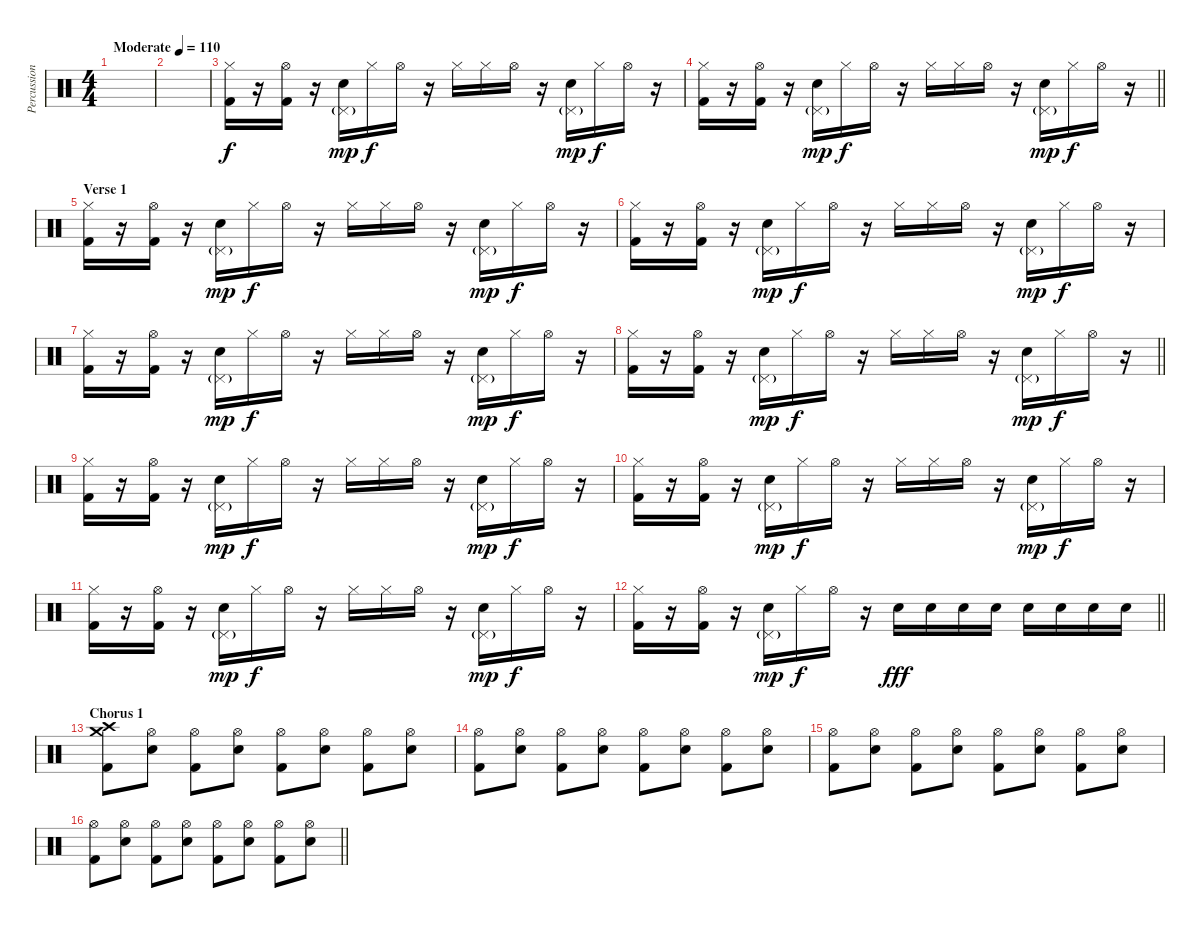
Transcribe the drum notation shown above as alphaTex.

\track ("Percussion" "Percussion") {instrument percussion}
\staff {score}
\articulation defaults
\ts (4 4)
\tempo (110 "Moderate")
\clef neutral
\ks c
|
|
("Kick (hit) 2" "Hi-Hat (closed)").16 r.16 ("Kick (hit) 2" "Hi-Hat (open)").16 r.16 ("Electric Snare (hit)" "Pedal Hi-Hat (hit)"{g}).16{dy mp} "Hi-Hat (closed)".16{dy f} "Hi-Hat (open)".16 r.16 "Hi-Hat (closed)".16 "Hi-Hat (closed)".16 "Hi-Hat (open)".16 r.16 ("Electric Snare (hit)" "Pedal Hi-Hat (hit)"{g}).16{dy mp} "Hi-Hat (closed)".16{dy f} "Hi-Hat (open)".16 r.16 |
\barLineRight lightlight
("Kick (hit) 2" "Hi-Hat (closed)").16 r.16 ("Kick (hit) 2" "Hi-Hat (open)").16 r.16 ("Electric Snare (hit)" "Pedal Hi-Hat (hit)"{g}).16{dy mp} "Hi-Hat (closed)".16{dy f} "Hi-Hat (open)".16 r.16 "Hi-Hat (closed)".16 "Hi-Hat (closed)".16 "Hi-Hat (open)".16 r.16 ("Electric Snare (hit)" "Pedal Hi-Hat (hit)"{g}).16{dy mp} "Hi-Hat (closed)".16{dy f} "Hi-Hat (open)".16 r.16 |
\section ("" "Verse 1")
("Kick (hit) 2" "Hi-Hat (closed)").16 r.16 ("Kick (hit) 2" "Hi-Hat (open)").16 r.16 ("Electric Snare (hit)" "Pedal Hi-Hat (hit)"{g}).16{dy mp} "Hi-Hat (closed)".16{dy f} "Hi-Hat (open)".16 r.16 "Hi-Hat (closed)".16 "Hi-Hat (closed)".16 "Hi-Hat (open)".16 r.16 ("Electric Snare (hit)" "Pedal Hi-Hat (hit)"{g}).16{dy mp} "Hi-Hat (closed)".16{dy f} "Hi-Hat (open)".16 r.16 |
("Kick (hit) 2" "Hi-Hat (closed)").16 r.16 ("Kick (hit) 2" "Hi-Hat (open)").16 r.16 ("Electric Snare (hit)" "Pedal Hi-Hat (hit)"{g}).16{dy mp} "Hi-Hat (closed)".16{dy f} "Hi-Hat (open)".16 r.16 "Hi-Hat (closed)".16 "Hi-Hat (closed)".16 "Hi-Hat (open)".16 r.16 ("Electric Snare (hit)" "Pedal Hi-Hat (hit)"{g}).16{dy mp} "Hi-Hat (closed)".16{dy f} "Hi-Hat (open)".16 r.16 |
("Kick (hit) 2" "Hi-Hat (closed)").16 r.16 ("Kick (hit) 2" "Hi-Hat (open)").16 r.16 ("Electric Snare (hit)" "Pedal Hi-Hat (hit)"{g}).16{dy mp} "Hi-Hat (closed)".16{dy f} "Hi-Hat (open)".16 r.16 "Hi-Hat (closed)".16 "Hi-Hat (closed)".16 "Hi-Hat (open)".16 r.16 ("Electric Snare (hit)" "Pedal Hi-Hat (hit)"{g}).16{dy mp} "Hi-Hat (closed)".16{dy f} "Hi-Hat (open)".16 r.16 |
\barLineRight lightlight
("Kick (hit) 2" "Hi-Hat (closed)").16 r.16 ("Kick (hit) 2" "Hi-Hat (open)").16 r.16 ("Electric Snare (hit)" "Pedal Hi-Hat (hit)"{g}).16{dy mp} "Hi-Hat (closed)".16{dy f} "Hi-Hat (open)".16 r.16 "Hi-Hat (closed)".16 "Hi-Hat (closed)".16 "Hi-Hat (open)".16 r.16 ("Electric Snare (hit)" "Pedal Hi-Hat (hit)"{g}).16{dy mp} "Hi-Hat (closed)".16{dy f} "Hi-Hat (open)".16 r.16 |
("Kick (hit) 2" "Hi-Hat (closed)").16 r.16 ("Kick (hit) 2" "Hi-Hat (open)").16 r.16 ("Electric Snare (hit)" "Pedal Hi-Hat (hit)"{g}).16{dy mp} "Hi-Hat (closed)".16{dy f} "Hi-Hat (open)".16 r.16 "Hi-Hat (closed)".16 "Hi-Hat (closed)".16 "Hi-Hat (open)".16 r.16 ("Electric Snare (hit)" "Pedal Hi-Hat (hit)"{g}).16{dy mp} "Hi-Hat (closed)".16{dy f} "Hi-Hat (open)".16 r.16 |
("Kick (hit) 2" "Hi-Hat (closed)").16 r.16 ("Kick (hit) 2" "Hi-Hat (open)").16 r.16 ("Electric Snare (hit)" "Pedal Hi-Hat (hit)"{g}).16{dy mp} "Hi-Hat (closed)".16{dy f} "Hi-Hat (open)".16 r.16 "Hi-Hat (closed)".16 "Hi-Hat (closed)".16 "Hi-Hat (open)".16 r.16 ("Electric Snare (hit)" "Pedal Hi-Hat (hit)"{g}).16{dy mp} "Hi-Hat (closed)".16{dy f} "Hi-Hat (open)".16 r.16 |
("Kick (hit) 2" "Hi-Hat (closed)").16 r.16 ("Kick (hit) 2" "Hi-Hat (open)").16 r.16 ("Electric Snare (hit)" "Pedal Hi-Hat (hit)"{g}).16{dy mp} "Hi-Hat (closed)".16{dy f} "Hi-Hat (open)".16 r.16 "Hi-Hat (closed)".16 "Hi-Hat (closed)".16 "Hi-Hat (open)".16 r.16 ("Electric Snare (hit)" "Pedal Hi-Hat (hit)"{g}).16{dy mp} "Hi-Hat (closed)".16{dy f} "Hi-Hat (open)".16 r.16 |
\barLineRight lightlight
("Kick (hit) 2" "Hi-Hat (closed)").16 r.16 ("Kick (hit) 2" "Hi-Hat (open)").16 r.16 ("Electric Snare (hit)" "Pedal Hi-Hat (hit)"{g}).16{dy mp} "Hi-Hat (closed)".16{dy f} "Hi-Hat (open)".16 r.16 "Electric Snare (hit)".16{dy fff} "Electric Snare (hit)".16 "Electric Snare (hit)".16 "Electric Snare (hit)".16 "Electric Snare (hit)".16 "Electric Snare (hit)".16 "Electric Snare (hit)".16 "Electric Snare (hit)".16 |
\section ("" "Chorus 1")
("Kick (hit) 2" "Crash medium (hit)" "Crash high (hit)").8 ("Electric Snare (hit)" "Hi-Hat (open)").8 ("Kick (hit) 2" "Hi-Hat (open)").8 ("Electric Snare (hit)" "Hi-Hat (open)").8 ("Kick (hit) 2" "Hi-Hat (open)").8 ("Electric Snare (hit)" "Hi-Hat (open)").8 ("Kick (hit) 2" "Hi-Hat (open)").8 ("Electric Snare (hit)" "Hi-Hat (open)").8 |
("Kick (hit) 2" "Hi-Hat (open)").8 ("Electric Snare (hit)" "Hi-Hat (open)").8 ("Kick (hit) 2" "Hi-Hat (open)").8 ("Electric Snare (hit)" "Hi-Hat (open)").8 ("Kick (hit) 2" "Hi-Hat (open)").8 ("Electric Snare (hit)" "Hi-Hat (open)").8 ("Kick (hit) 2" "Hi-Hat (open)").8 ("Electric Snare (hit)" "Hi-Hat (open)").8 |
("Kick (hit) 2" "Hi-Hat (open)").8 ("Electric Snare (hit)" "Hi-Hat (open)").8 ("Kick (hit) 2" "Hi-Hat (open)").8 ("Electric Snare (hit)" "Hi-Hat (open)").8 ("Kick (hit) 2" "Hi-Hat (open)").8 ("Electric Snare (hit)" "Hi-Hat (open)").8 ("Kick (hit) 2" "Hi-Hat (open)").8 ("Electric Snare (hit)" "Hi-Hat (open)").8 |
\barLineRight lightlight
("Kick (hit) 2" "Hi-Hat (open)").8 ("Electric Snare (hit)" "Hi-Hat (open)").8 ("Kick (hit) 2" "Hi-Hat (open)").8 ("Electric Snare (hit)" "Hi-Hat (open)").8 ("Kick (hit) 2" "Hi-Hat (open)").8 ("Electric Snare (hit)" "Hi-Hat (open)").8 ("Kick (hit) 2" "Hi-Hat (open)").8 ("Electric Snare (hit)" "Hi-Hat (open)").8
